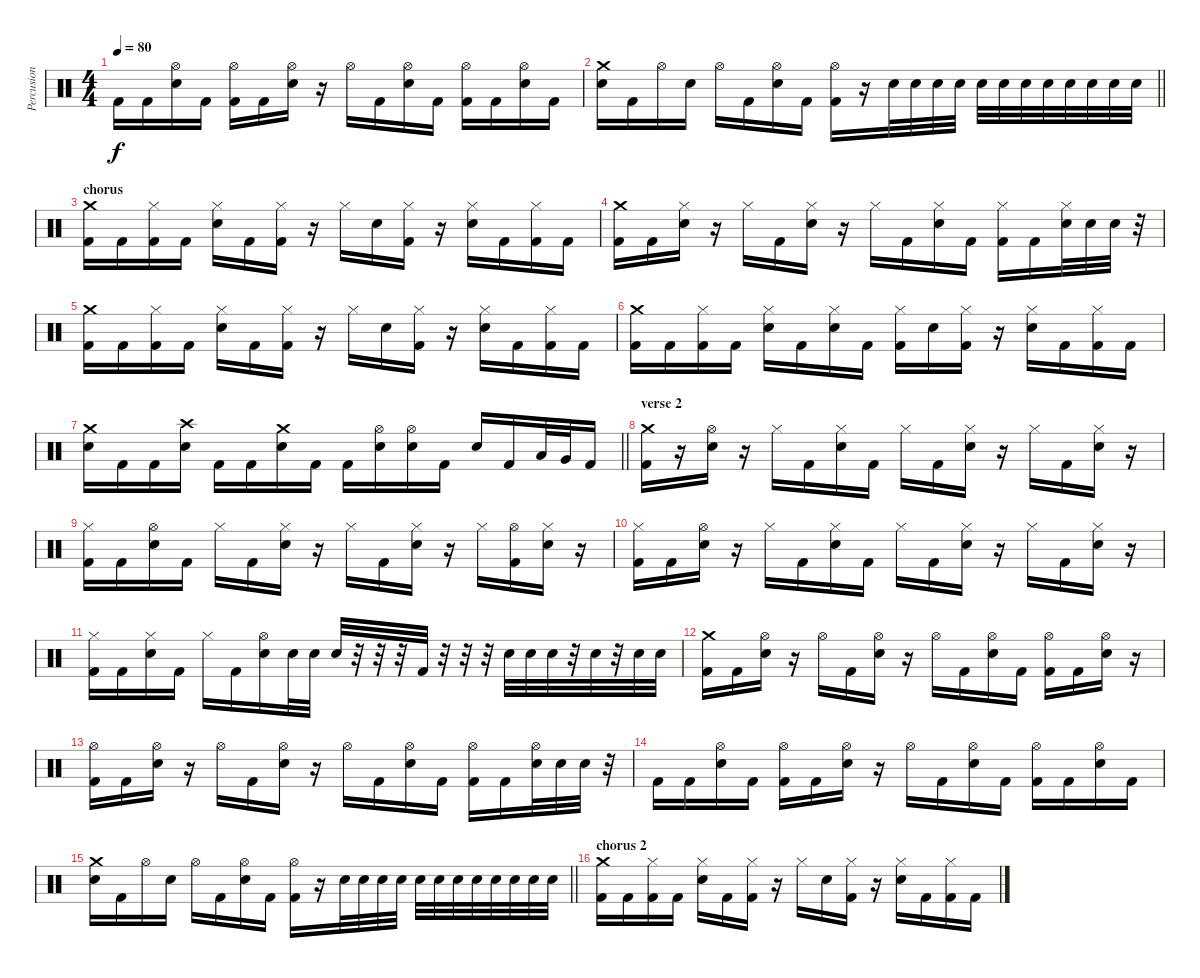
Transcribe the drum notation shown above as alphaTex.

\track ("Percusion" "Percusion") {instrument percussion}
\staff {score}
\articulation defaults
\ts (4 4)
\tempo 80
\clef neutral
\ks c "Kick (hit) 2".16{dy f} "Kick (hit) 2".16
("Hi-Hat (open)" "Electric Snare (hit)").16 "Kick (hit) 2".16 ("Hi-Hat (open)" "Kick (hit) 2").16 "Kick (hit) 2".16 ("Hi-Hat (open)" "Electric Snare (hit)").16 r.16 "Hi-Hat (open)".16 "Kick (hit) 2".16 ("Hi-Hat (open)" "Electric Snare (hit)").16 "Kick (hit) 2".16 ("Hi-Hat (open)" "Kick (hit) 2").16 "Kick (hit) 2".16 ("Hi-Hat (open)" "Electric Snare (hit)").16 "Kick (hit) 2".16 |
\barLineRight lightlight
("Crash medium (hit)" "Electric Snare (hit)").16 "Kick (hit) 2".16 "Hi-Hat (open)".16 "Electric Snare (hit)".16 "Hi-Hat (open)".16 "Kick (hit) 2".16 ("Hi-Hat (open)" "Electric Snare (hit)").16 "Kick (hit) 2".16 ("Hi-Hat (open)" "Kick (hit) 2").16 r.16 "Electric Snare (hit)".32 "Electric Snare (hit)".32 "Electric Snare (hit)".32 "Electric Snare (hit)".32 "Electric Snare (hit)".32 "Electric Snare (hit)".32 "Electric Snare (hit)".32 "Electric Snare (hit)".32 "Electric Snare (hit)".32 "Electric Snare (hit)".32 "Electric Snare (hit)".32 "Electric Snare (hit)".32 |
\section ("" "chorus")
("Crash medium (hit)" "Kick (hit) 2").16 "Kick (hit) 2".16 ("Hi-Hat (closed)" "Kick (hit) 2").16 "Kick (hit) 2".16 ("Hi-Hat (closed)" "Electric Snare (hit)").16 "Kick (hit) 2".16 ("Hi-Hat (closed)" "Kick (hit) 2").16 r.16 "Hi-Hat (closed)".16 "Electric Snare (hit)".16 ("Hi-Hat (closed)" "Kick (hit) 2").16 r.16 ("Hi-Hat (closed)" "Electric Snare (hit)").16 "Kick (hit) 2".16 ("Hi-Hat (closed)" "Kick (hit) 2").16 "Kick (hit) 2".16 |
("Crash medium (hit)" "Kick (hit) 2").16 "Kick (hit) 2".16 ("Hi-Hat (closed)" "Electric Snare (hit)").16 r.16 "Hi-Hat (closed)".16 "Kick (hit) 2".16 ("Hi-Hat (closed)" "Electric Snare (hit)").16 r.16 "Hi-Hat (closed)".16 "Kick (hit) 2".16 ("Hi-Hat (closed)" "Electric Snare (hit)").16 "Kick (hit) 2".16 ("Hi-Hat (closed)" "Kick (hit) 2").16 "Kick (hit) 2".16 ("Hi-Hat (closed)" "Electric Snare (hit)").32 "Electric Snare (hit)".32 "Electric Snare (hit)".32 r.32 |
("Crash medium (hit)" "Kick (hit) 2").16 "Kick (hit) 2".16 ("Hi-Hat (closed)" "Kick (hit) 2").16 "Kick (hit) 2".16 ("Hi-Hat (closed)" "Electric Snare (hit)").16 "Kick (hit) 2".16 ("Hi-Hat (closed)" "Kick (hit) 2").16 r.16 "Hi-Hat (closed)".16 "Electric Snare (hit)".16 ("Hi-Hat (closed)" "Kick (hit) 2").16 r.16 ("Hi-Hat (closed)" "Electric Snare (hit)").16 "Kick (hit) 2".16 ("Hi-Hat (closed)" "Kick (hit) 2").16 "Kick (hit) 2".16 |
("Crash medium (hit)" "Kick (hit) 2").16 "Kick (hit) 2".16 ("Hi-Hat (closed)" "Kick (hit) 2").16 "Kick (hit) 2".16 ("Hi-Hat (closed)" "Electric Snare (hit)").16 "Kick (hit) 2".16 ("Hi-Hat (closed)" "Electric Snare (hit)").16 "Kick (hit) 2".16 ("Hi-Hat (closed)" "Kick (hit) 2").16 "Electric Snare (hit)".16 ("Hi-Hat (closed)" "Kick (hit) 2").16 r.16 ("Hi-Hat (closed)" "Electric Snare (hit)").16 "Kick (hit) 2".16 ("Hi-Hat (closed)" "Kick (hit) 2").16 "Kick (hit) 2".16 |
\barLineRight lightlight
("Crash medium (hit)" "Electric Snare (hit)").16 "Kick (hit) 2".16 "Kick (hit) 2".16 ("Crash high (hit)" "Electric Snare (hit)").16 "Kick (hit) 2".16 "Kick (hit) 2".16 ("Crash medium (hit)" "Electric Snare (hit)").16 "Kick (hit) 2".16 "Kick (hit) 2".16 ("Hi-Hat (open)" "Electric Snare (hit)").16 ("Hi-Hat (open)" "Electric Snare (hit)").16 "Kick (hit) 2".16 "Electric Snare (hit)".16 "Kick (hit) 2".16 "Low Floor Tom (hit)".32 "Very Low Tom (hit)".32 "Kick (hit) 2".16 |
\section ("" "verse 2")
("Crash medium (hit)" "Kick (hit) 2").16 r.16 ("Hi-Hat (open)" "Electric Snare (hit)").16 r.16 "Hi-Hat (closed)".16 "Kick (hit) 2".16 ("Hi-Hat (closed)" "Electric Snare (hit)").16 "Kick (hit) 2".16 "Hi-Hat (closed)".16 "Kick (hit) 2".16 ("Hi-Hat (closed)" "Electric Snare (hit)").16 r.16 "Hi-Hat (closed)".16 "Kick (hit) 2".16 ("Hi-Hat (closed)" "Electric Snare (hit)").16 r.16 |
("Hi-Hat (closed)" "Kick (hit) 2").16 "Kick (hit) 2".16 ("Hi-Hat (open)" "Electric Snare (hit)").16 "Kick (hit) 2".16 "Hi-Hat (closed)".16 "Kick (hit) 2".16 ("Hi-Hat (closed)" "Electric Snare (hit)").16 r.16 "Hi-Hat (closed)".16 "Kick (hit) 2".16 ("Hi-Hat (closed)" "Electric Snare (hit)").16 r.16 "Hi-Hat (closed)".16 ("Hi-Hat (open)" "Kick (hit) 2").16 ("Hi-Hat (closed)" "Electric Snare (hit)").16 r.16 |
("Hi-Hat (closed)" "Kick (hit) 2").16 "Kick (hit) 2".16 ("Hi-Hat (open)" "Electric Snare (hit)").16 r.16 "Hi-Hat (closed)".16 "Kick (hit) 2".16 ("Hi-Hat (closed)" "Electric Snare (hit)").16 "Kick (hit) 2".16 "Hi-Hat (closed)".16 "Kick (hit) 2".16 ("Hi-Hat (closed)" "Electric Snare (hit)").16 r.16 "Hi-Hat (closed)".16 "Kick (hit) 2".16 ("Hi-Hat (closed)" "Electric Snare (hit)").16 r.16 |
("Hi-Hat (closed)" "Kick (hit) 2").16 "Kick (hit) 2".16 ("Hi-Hat (closed)" "Electric Snare (hit)").16 "Kick (hit) 2".16 "Hi-Hat (closed)".16 "Kick (hit) 2".16 ("Hi-Hat (open)" "Electric Snare (hit)").16 "Electric Snare (hit)".32 "Electric Snare (hit)".32 "Electric Snare (hit)".32 r.32 r.32 r.32 "Kick (hit) 2".32 r.32 r.32 r.32 "Electric Snare (hit)".32 "Electric Snare (hit)".32 "Electric Snare (hit)".32 r.32 "Electric Snare (hit)".32 r.32 "Electric Snare (hit)".32 "Electric Snare (hit)".32 |
("Crash medium (hit)" "Kick (hit) 2").16 "Kick (hit) 2".16 ("Hi-Hat (open)" "Electric Snare (hit)").16 r.16 "Hi-Hat (open)".16 "Kick (hit) 2".16 ("Hi-Hat (open)" "Electric Snare (hit)").16 r.16 "Hi-Hat (open)".16 "Kick (hit) 2".16 ("Hi-Hat (open)" "Electric Snare (hit)").16 "Kick (hit) 2".16 ("Hi-Hat (open)" "Kick (hit) 2").16 "Kick (hit) 2".16 ("Hi-Hat (open)" "Electric Snare (hit)").16 r.16 |
("Hi-Hat (open)" "Kick (hit) 2").16 "Kick (hit) 2".16 ("Hi-Hat (open)" "Electric Snare (hit)").16 r.16 "Hi-Hat (open)".16 "Kick (hit) 2".16 ("Hi-Hat (open)" "Electric Snare (hit)").16 r.16 "Hi-Hat (open)".16 "Kick (hit) 2".16 ("Hi-Hat (open)" "Electric Snare (hit)").16 "Kick (hit) 2".16 ("Hi-Hat (open)" "Kick (hit) 2").16 "Kick (hit) 2".16 ("Hi-Hat (open)" "Electric Snare (hit)").32 "Electric Snare (hit)".32 "Electric Snare (hit)".32 r.32 |
"Kick (hit) 2".16 "Kick (hit) 2".16 ("Hi-Hat (open)" "Electric Snare (hit)").16 "Kick (hit) 2".16 ("Hi-Hat (open)" "Kick (hit) 2").16 "Kick (hit) 2".16 ("Hi-Hat (open)" "Electric Snare (hit)").16 r.16 "Hi-Hat (open)".16 "Kick (hit) 2".16 ("Hi-Hat (open)" "Electric Snare (hit)").16 "Kick (hit) 2".16 ("Hi-Hat (open)" "Kick (hit) 2").16 "Kick (hit) 2".16 ("Hi-Hat (open)" "Electric Snare (hit)").16 "Kick (hit) 2".16 |
\barLineRight lightlight
("Crash medium (hit)" "Electric Snare (hit)").16 "Kick (hit) 2".16 "Hi-Hat (open)".16 "Electric Snare (hit)".16 "Hi-Hat (open)".16 "Kick (hit) 2".16 ("Hi-Hat (open)" "Electric Snare (hit)").16 "Kick (hit) 2".16 ("Hi-Hat (open)" "Kick (hit) 2").16 r.16 "Electric Snare (hit)".32 "Electric Snare (hit)".32 "Electric Snare (hit)".32 "Electric Snare (hit)".32 "Electric Snare (hit)".32 "Electric Snare (hit)".32 "Electric Snare (hit)".32 "Electric Snare (hit)".32 "Electric Snare (hit)".32 "Electric Snare (hit)".32 "Electric Snare (hit)".32 "Electric Snare (hit)".32 |
\section ("" "chorus 2")
("Crash medium (hit)" "Kick (hit) 2").16 "Kick (hit) 2".16 ("Hi-Hat (closed)" "Kick (hit) 2").16 "Kick (hit) 2".16 ("Hi-Hat (closed)" "Electric Snare (hit)").16 "Kick (hit) 2".16 ("Hi-Hat (closed)" "Kick (hit) 2").16 r.16 "Hi-Hat (closed)".16 "Electric Snare (hit)".16 ("Hi-Hat (closed)" "Kick (hit) 2").16 r.16 ("Hi-Hat (closed)" "Electric Snare (hit)").16 "Kick (hit) 2".16 ("Hi-Hat (closed)" "Kick (hit) 2").16 "Kick (hit) 2".16
